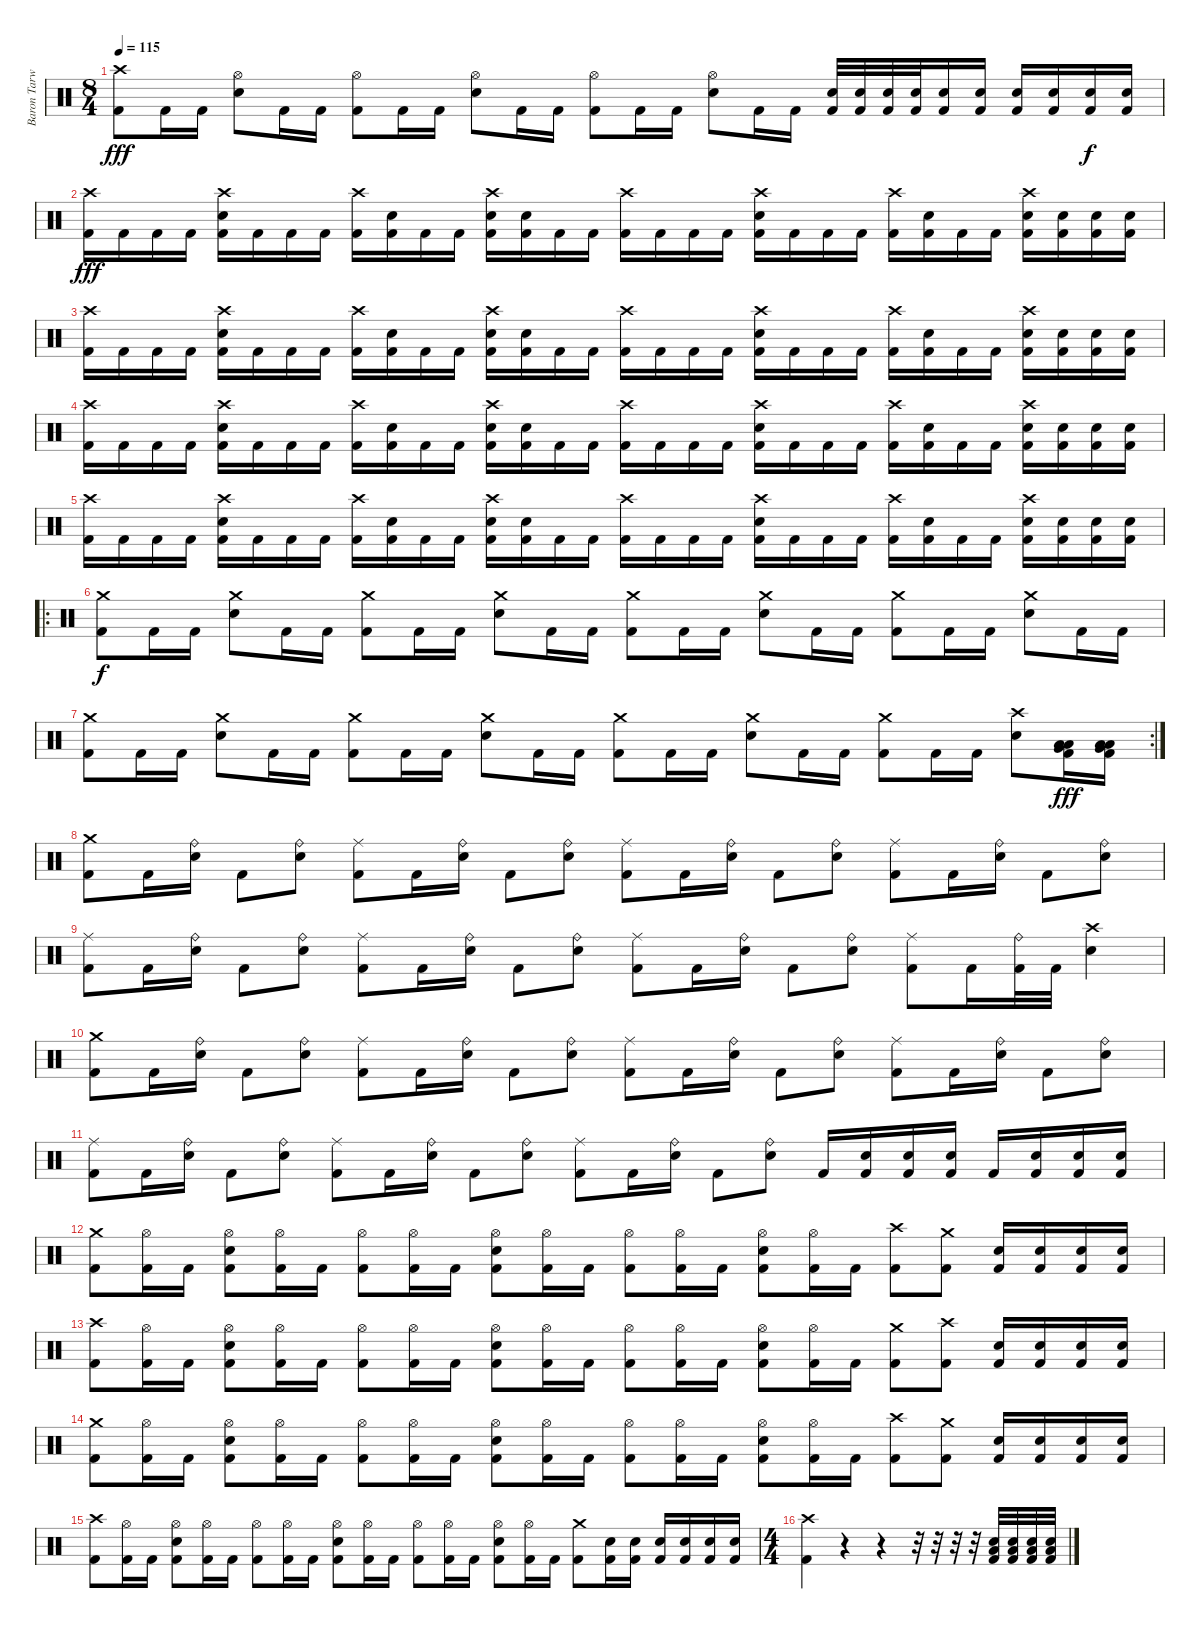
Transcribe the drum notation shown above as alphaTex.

\track ("Baron Tarwonen" "Baron Tarw") {instrument percussion}
\staff {score}
\articulation defaults
\ts (8 4)
\tempo 115
\clef neutral
\ks c
("Crash high (hit)" "Kick (hit) 2").8{dy fff} "Kick (hit) 2".16 "Kick (hit) 2".16 ("Hi-Hat (open)" "Snare (hit) 2").8 "Kick (hit) 2".16 "Kick (hit) 2".16 ("Hi-Hat (open)" "Kick (hit) 2").8 "Kick (hit) 2".16 "Kick (hit) 2".16 ("Hi-Hat (open)" "Snare (hit) 2").8 "Kick (hit) 2".16 "Kick (hit) 2".16 ("Hi-Hat (open)" "Kick (hit) 2").8 "Kick (hit) 2".16 "Kick (hit) 2".16 ("Hi-Hat (open)" "Snare (hit) 2").8 "Kick (hit) 2".16 "Kick (hit) 2".16 ("Snare (hit) 2" "Kick (hit) 2").32 ("Snare (hit) 2" "Kick (hit) 2").32 ("Snare (hit) 2" "Kick (hit) 2").32 ("Snare (hit) 2" "Kick (hit) 2").32 ("Snare (hit) 2" "Kick (hit) 2").16 ("Snare (hit) 2" "Kick (hit) 2").16 ("Snare (hit) 2" "Kick (hit) 2").16 ("Snare (hit) 2" "Kick (hit) 2").16 ("Snare (hit) 2" "Kick (hit) 2").16{dy f} ("Snare (hit) 2" "Kick (hit) 2").16 |
("Crash high (hit)" "Kick (hit) 2").16{dy fff} "Kick (hit) 2".16 "Kick (hit) 2".16 "Kick (hit) 2".16 ("Crash high (hit)" "Snare (hit) 2" "Kick (hit) 2").16 "Kick (hit) 2".16 "Kick (hit) 2".16 "Kick (hit) 2".16 ("Crash high (hit)" "Kick (hit) 2").16 ("Snare (hit) 2" "Kick (hit) 2").16 "Kick (hit) 2".16 "Kick (hit) 2".16 ("Crash high (hit)" "Snare (hit) 2" "Kick (hit) 2").16 ("Snare (hit) 2" "Kick (hit) 2").16 "Kick (hit) 2".16 "Kick (hit) 2".16 ("Crash high (hit)" "Kick (hit) 2").16 "Kick (hit) 2".16 "Kick (hit) 2".16 "Kick (hit) 2".16 ("Crash high (hit)" "Snare (hit) 2" "Kick (hit) 2").16 "Kick (hit) 2".16 "Kick (hit) 2".16 "Kick (hit) 2".16 ("Crash high (hit)" "Kick (hit) 2").16 ("Snare (hit) 2" "Kick (hit) 2").16 "Kick (hit) 2".16 "Kick (hit) 2".16 ("Crash high (hit)" "Snare (hit) 2" "Kick (hit) 2").16 ("Snare (hit) 2" "Kick (hit) 2").16 ("Snare (hit) 2" "Kick (hit) 2").16 ("Snare (hit) 2" "Kick (hit) 2").16 |
("Crash high (hit)" "Kick (hit) 2").16 "Kick (hit) 2".16 "Kick (hit) 2".16 "Kick (hit) 2".16 ("Crash high (hit)" "Snare (hit) 2" "Kick (hit) 2").16 "Kick (hit) 2".16 "Kick (hit) 2".16 "Kick (hit) 2".16 ("Crash high (hit)" "Kick (hit) 2").16 ("Snare (hit) 2" "Kick (hit) 2").16 "Kick (hit) 2".16 "Kick (hit) 2".16 ("Crash high (hit)" "Snare (hit) 2" "Kick (hit) 2").16 ("Snare (hit) 2" "Kick (hit) 2").16 "Kick (hit) 2".16 "Kick (hit) 2".16 ("Crash high (hit)" "Kick (hit) 2").16 "Kick (hit) 2".16 "Kick (hit) 2".16 "Kick (hit) 2".16 ("Crash high (hit)" "Snare (hit) 2" "Kick (hit) 2").16 "Kick (hit) 2".16 "Kick (hit) 2".16 "Kick (hit) 2".16 ("Crash high (hit)" "Kick (hit) 2").16 ("Snare (hit) 2" "Kick (hit) 2").16 "Kick (hit) 2".16 "Kick (hit) 2".16 ("Crash high (hit)" "Snare (hit) 2" "Kick (hit) 2").16 ("Snare (hit) 2" "Kick (hit) 2").16 ("Snare (hit) 2" "Kick (hit) 2").16 ("Snare (hit) 2" "Kick (hit) 2").16 |
("Crash high (hit)" "Kick (hit) 2").16 "Kick (hit) 2".16 "Kick (hit) 2".16 "Kick (hit) 2".16 ("Crash high (hit)" "Snare (hit) 2" "Kick (hit) 2").16 "Kick (hit) 2".16 "Kick (hit) 2".16 "Kick (hit) 2".16 ("Crash high (hit)" "Kick (hit) 2").16 ("Snare (hit) 2" "Kick (hit) 2").16 "Kick (hit) 2".16 "Kick (hit) 2".16 ("Crash high (hit)" "Snare (hit) 2" "Kick (hit) 2").16 ("Snare (hit) 2" "Kick (hit) 2").16 "Kick (hit) 2".16 "Kick (hit) 2".16 ("Crash high (hit)" "Kick (hit) 2").16 "Kick (hit) 2".16 "Kick (hit) 2".16 "Kick (hit) 2".16 ("Crash high (hit)" "Snare (hit) 2" "Kick (hit) 2").16 "Kick (hit) 2".16 "Kick (hit) 2".16 "Kick (hit) 2".16 ("Crash high (hit)" "Kick (hit) 2").16 ("Snare (hit) 2" "Kick (hit) 2").16 "Kick (hit) 2".16 "Kick (hit) 2".16 ("Crash high (hit)" "Snare (hit) 2" "Kick (hit) 2").16 ("Snare (hit) 2" "Kick (hit) 2").16 ("Snare (hit) 2" "Kick (hit) 2").16 ("Snare (hit) 2" "Kick (hit) 2").16 |
("Crash high (hit)" "Kick (hit) 2").16 "Kick (hit) 2".16 "Kick (hit) 2".16 "Kick (hit) 2".16 ("Crash high (hit)" "Snare (hit) 2" "Kick (hit) 2").16 "Kick (hit) 2".16 "Kick (hit) 2".16 "Kick (hit) 2".16 ("Crash high (hit)" "Kick (hit) 2").16 ("Snare (hit) 2" "Kick (hit) 2").16 "Kick (hit) 2".16 "Kick (hit) 2".16 ("Crash high (hit)" "Snare (hit) 2" "Kick (hit) 2").16 ("Snare (hit) 2" "Kick (hit) 2").16 "Kick (hit) 2".16 "Kick (hit) 2".16 ("Crash high (hit)" "Kick (hit) 2").16 "Kick (hit) 2".16 "Kick (hit) 2".16 "Kick (hit) 2".16 ("Crash high (hit)" "Snare (hit) 2" "Kick (hit) 2").16 "Kick (hit) 2".16 "Kick (hit) 2".16 "Kick (hit) 2".16 ("Crash high (hit)" "Kick (hit) 2").16 ("Snare (hit) 2" "Kick (hit) 2").16 "Kick (hit) 2".16 "Kick (hit) 2".16 ("Crash high (hit)" "Snare (hit) 2" "Kick (hit) 2").16 ("Snare (hit) 2" "Kick (hit) 2").16 ("Snare (hit) 2" "Kick (hit) 2").16 ("Snare (hit) 2" "Kick (hit) 2").16 |
\ro
("Crash medium (hit)" "Kick (hit) 2").8{dy f} "Kick (hit) 2".16 "Kick (hit) 2".16 ("Crash medium (hit)" "Snare (hit) 2").8 "Kick (hit) 2".16 "Kick (hit) 2".16 ("Crash medium (hit)" "Kick (hit) 2").8 "Kick (hit) 2".16 "Kick (hit) 2".16 ("Crash medium (hit)" "Snare (hit) 2").8 "Kick (hit) 2".16 "Kick (hit) 2".16 ("Crash medium (hit)" "Kick (hit) 2").8 "Kick (hit) 2".16 "Kick (hit) 2".16 ("Crash medium (hit)" "Snare (hit) 2").8 "Kick (hit) 2".16 "Kick (hit) 2".16 ("Crash medium (hit)" "Kick (hit) 2").8 "Kick (hit) 2".16 "Kick (hit) 2".16 ("Crash medium (hit)" "Snare (hit) 2").8 "Kick (hit) 2".16 "Kick (hit) 2".16 |
\rc 2
("Crash medium (hit)" "Kick (hit) 2").8 "Kick (hit) 2".16 "Kick (hit) 2".16 ("Crash medium (hit)" "Snare (hit) 2").8 "Kick (hit) 2".16 "Kick (hit) 2".16 ("Crash medium (hit)" "Kick (hit) 2").8 "Kick (hit) 2".16 "Kick (hit) 2".16 ("Crash medium (hit)" "Snare (hit) 2").8 "Kick (hit) 2".16 "Kick (hit) 2".16 ("Crash medium (hit)" "Kick (hit) 2").8 "Kick (hit) 2".16 "Kick (hit) 2".16 ("Crash medium (hit)" "Snare (hit) 2").8 "Kick (hit) 2".16 "Kick (hit) 2".16 ("Crash medium (hit)" "Kick (hit) 2").8 "Kick (hit) 2".16 "Kick (hit) 2".16 ("Crash high (hit)" "Snare (hit) 2").8 ("Very Low Tom (hit)" "Low Tom (hit)" "Low Floor Tom (hit)" "Kick (hit) 2").16{dy fff} ("Low Floor Tom (hit)" "Very Low Tom (hit)" "Low Floor Tom (hit)" "Kick (hit) 2").16 |
("Crash medium (hit)" "Kick (hit) 2").8 "Kick (hit) 2".16 ("Ride (bell)" "Snare (hit) 2").16 "Kick (hit) 2".8 ("Ride (bell)" "Snare (hit) 2").8 ("Ride (middle)" "Kick (hit) 2").8 "Kick (hit) 2".16 ("Ride (bell)" "Snare (hit) 2").16 "Kick (hit) 2".8 ("Ride (bell)" "Snare (hit) 2").8 ("Ride (middle)" "Kick (hit) 2").8 "Kick (hit) 2".16 ("Ride (bell)" "Snare (hit) 2").16 "Kick (hit) 2".8 ("Ride (bell)" "Snare (hit) 2").8 ("Ride (middle)" "Kick (hit) 2").8 "Kick (hit) 2".16 ("Ride (bell)" "Snare (hit) 2").16 "Kick (hit) 2".8 ("Ride (bell)" "Snare (hit) 2").8 |
("Ride (middle)" "Kick (hit) 2").8 "Kick (hit) 2".16 ("Ride (bell)" "Snare (hit) 2").16 "Kick (hit) 2".8 ("Ride (bell)" "Snare (hit) 2").8 ("Ride (middle)" "Kick (hit) 2").8 "Kick (hit) 2".16 ("Ride (bell)" "Snare (hit) 2").16 "Kick (hit) 2".8 ("Ride (bell)" "Snare (hit) 2").8 ("Ride (middle)" "Kick (hit) 2").8 "Kick (hit) 2".16 ("Ride (bell)" "Snare (hit) 2").16 "Kick (hit) 2".8 ("Ride (bell)" "Snare (hit) 2").8 ("Ride (middle)" "Kick (hit) 2").8 "Kick (hit) 2".16 ("Ride (bell)" "Kick (hit) 2").32 "Kick (hit) 2".32 ("Crash high (hit)" "Snare (hit) 2").4 |
("Crash medium (hit)" "Kick (hit) 2").8 "Kick (hit) 2".16 ("Ride (bell)" "Snare (hit) 2").16 "Kick (hit) 2".8 ("Ride (bell)" "Snare (hit) 2").8 ("Ride (middle)" "Kick (hit) 2").8 "Kick (hit) 2".16 ("Ride (bell)" "Snare (hit) 2").16 "Kick (hit) 2".8 ("Ride (bell)" "Snare (hit) 2").8 ("Ride (middle)" "Kick (hit) 2").8 "Kick (hit) 2".16 ("Ride (bell)" "Snare (hit) 2").16 "Kick (hit) 2".8 ("Ride (bell)" "Snare (hit) 2").8 ("Ride (middle)" "Kick (hit) 2").8 "Kick (hit) 2".16 ("Ride (bell)" "Snare (hit) 2").16 "Kick (hit) 2".8 ("Ride (bell)" "Snare (hit) 2").8 |
("Ride (middle)" "Kick (hit) 2").8 "Kick (hit) 2".16 ("Ride (bell)" "Snare (hit) 2").16 "Kick (hit) 2".8 ("Ride (bell)" "Snare (hit) 2").8 ("Ride (middle)" "Kick (hit) 2").8 "Kick (hit) 2".16 ("Ride (bell)" "Snare (hit) 2").16 "Kick (hit) 2".8 ("Ride (bell)" "Snare (hit) 2").8 ("Ride (middle)" "Kick (hit) 2").8 "Kick (hit) 2".16 ("Ride (bell)" "Snare (hit) 2").16 "Kick (hit) 2".8 ("Ride (bell)" "Snare (hit) 2").8 "Kick (hit) 2".16 ("Snare (hit) 2" "Kick (hit) 2").16 ("Snare (hit) 2" "Kick (hit) 2").16 ("Snare (hit) 2" "Kick (hit) 2").16 "Kick (hit) 2".16 ("Snare (hit) 2" "Kick (hit) 2").16 ("Snare (hit) 2" "Kick (hit) 2").16 ("Snare (hit) 2" "Kick (hit) 2").16 |
("Crash medium (hit)" "Kick (hit) 2").8 ("Hi-Hat (open)" "Kick (hit) 2").16 "Kick (hit) 2".16 ("Hi-Hat (open)" "Snare (hit) 2" "Kick (hit) 2").8 ("Hi-Hat (open)" "Kick (hit) 2").16 "Kick (hit) 2".16 ("Hi-Hat (open)" "Kick (hit) 2").8 ("Hi-Hat (open)" "Kick (hit) 2").16 "Kick (hit) 2".16 ("Hi-Hat (open)" "Snare (hit) 2" "Kick (hit) 2").8 ("Hi-Hat (open)" "Kick (hit) 2").16 "Kick (hit) 2".16 ("Hi-Hat (open)" "Kick (hit) 2").8 ("Hi-Hat (open)" "Kick (hit) 2").16 "Kick (hit) 2".16 ("Hi-Hat (open)" "Snare (hit) 2" "Kick (hit) 2").8 ("Hi-Hat (open)" "Kick (hit) 2").16 "Kick (hit) 2".16 ("Crash high (hit)" "Kick (hit) 2").8 ("Crash medium (hit)" "Kick (hit) 2").8 ("Snare (hit) 2" "Kick (hit) 2").16 ("Snare (hit) 2" "Kick (hit) 2").16 ("Snare (hit) 2" "Kick (hit) 2").16 ("Snare (hit) 2" "Kick (hit) 2").16 |
("Crash high (hit)" "Kick (hit) 2").8 ("Hi-Hat (open)" "Kick (hit) 2").16 "Kick (hit) 2".16 ("Hi-Hat (open)" "Snare (hit) 2" "Kick (hit) 2").8 ("Hi-Hat (open)" "Kick (hit) 2").16 "Kick (hit) 2".16 ("Hi-Hat (open)" "Kick (hit) 2").8 ("Hi-Hat (open)" "Kick (hit) 2").16 "Kick (hit) 2".16 ("Hi-Hat (open)" "Snare (hit) 2" "Kick (hit) 2").8 ("Hi-Hat (open)" "Kick (hit) 2").16 "Kick (hit) 2".16 ("Hi-Hat (open)" "Kick (hit) 2").8 ("Hi-Hat (open)" "Kick (hit) 2").16 "Kick (hit) 2".16 ("Hi-Hat (open)" "Snare (hit) 2" "Kick (hit) 2").8 ("Hi-Hat (open)" "Kick (hit) 2").16 "Kick (hit) 2".16 ("Crash medium (hit)" "Kick (hit) 2").8 ("Crash high (hit)" "Kick (hit) 2").8 ("Snare (hit) 2" "Kick (hit) 2").16 ("Snare (hit) 2" "Kick (hit) 2").16 ("Snare (hit) 2" "Kick (hit) 2").16 ("Snare (hit) 2" "Kick (hit) 2").16 |
("Crash medium (hit)" "Kick (hit) 2").8 ("Hi-Hat (open)" "Kick (hit) 2").16 "Kick (hit) 2".16 ("Hi-Hat (open)" "Snare (hit) 2" "Kick (hit) 2").8 ("Hi-Hat (open)" "Kick (hit) 2").16 "Kick (hit) 2".16 ("Hi-Hat (open)" "Kick (hit) 2").8 ("Hi-Hat (open)" "Kick (hit) 2").16 "Kick (hit) 2".16 ("Hi-Hat (open)" "Snare (hit) 2" "Kick (hit) 2").8 ("Hi-Hat (open)" "Kick (hit) 2").16 "Kick (hit) 2".16 ("Hi-Hat (open)" "Kick (hit) 2").8 ("Hi-Hat (open)" "Kick (hit) 2").16 "Kick (hit) 2".16 ("Hi-Hat (open)" "Snare (hit) 2" "Kick (hit) 2").8 ("Hi-Hat (open)" "Kick (hit) 2").16 "Kick (hit) 2".16 ("Crash high (hit)" "Kick (hit) 2").8 ("Crash medium (hit)" "Kick (hit) 2").8 ("Snare (hit) 2" "Kick (hit) 2").16 ("Snare (hit) 2" "Kick (hit) 2").16 ("Snare (hit) 2" "Kick (hit) 2").16 ("Snare (hit) 2" "Kick (hit) 2").16 |
("Crash high (hit)" "Kick (hit) 2").8 ("Hi-Hat (open)" "Kick (hit) 2").16 "Kick (hit) 2".16 ("Hi-Hat (open)" "Snare (hit) 2" "Kick (hit) 2").8 ("Hi-Hat (open)" "Kick (hit) 2").16 "Kick (hit) 2".16 ("Hi-Hat (open)" "Kick (hit) 2").8 ("Hi-Hat (open)" "Kick (hit) 2").16 "Kick (hit) 2".16 ("Hi-Hat (open)" "Snare (hit) 2" "Kick (hit) 2").8 ("Hi-Hat (open)" "Kick (hit) 2").16 "Kick (hit) 2".16 ("Hi-Hat (open)" "Kick (hit) 2").8 ("Hi-Hat (open)" "Kick (hit) 2").16 "Kick (hit) 2".16 ("Hi-Hat (open)" "Snare (hit) 2" "Kick (hit) 2").8 ("Hi-Hat (open)" "Kick (hit) 2").16 "Kick (hit) 2".16 ("Crash medium (hit)" "Kick (hit) 2").8 ("Snare (hit) 2" "Kick (hit) 2").16 ("Snare (hit) 2" "Kick (hit) 2").16 ("Snare (hit) 2" "Kick (hit) 2").16 ("Snare (hit) 2" "Kick (hit) 2").16 ("Snare (hit) 2" "Kick (hit) 2").16 ("Snare (hit) 2" "Kick (hit) 2").16 |
\ts (4 4)
("Crash high (hit)" "Kick (hit) 2").4 r.4 r.4 r.32 r.32 r.32 r.32 ("Snare (hit) 2" "Low Floor Tom (hit)" "Kick (hit) 2").32 ("Snare (hit) 2" "Low Floor Tom (hit)" "Kick (hit) 2").32 ("Snare (hit) 2" "Low Floor Tom (hit)" "Kick (hit) 2").32 ("Snare (hit) 2" "Low Floor Tom (hit)" "Kick (hit) 2").32
